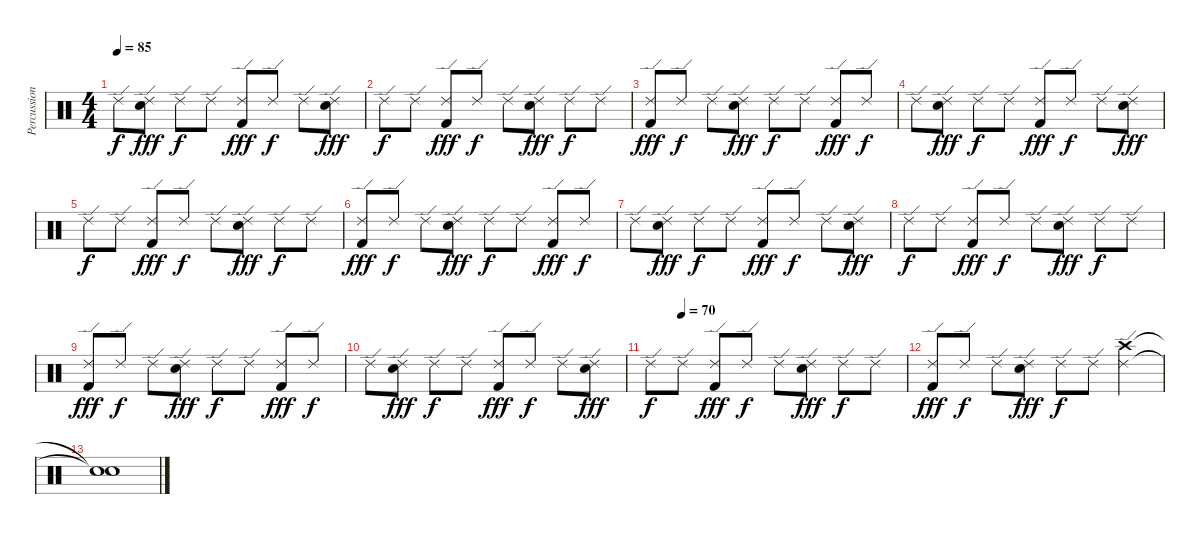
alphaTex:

\track ("Percussion" "Percussion") {instrument percussion}
\staff {score}
\articulation defaults
\ts (4 4)
\tempo 85
\clef neutral
\ks c "Ride (edge) 2".8{dy f}
("Ride (edge) 2" "Electric Snare (hit)").8{dy fff} "Ride (edge) 2".8{dy f} "Ride (edge) 2".8 ("Ride (edge) 2" "Kick (hit) 2").8{dy fff} "Ride (edge) 2".8{dy f} "Ride (edge) 2".8 ("Ride (edge) 2" "Electric Snare (hit)").8{dy fff} |
"Ride (edge) 2".8{dy f} "Ride (edge) 2".8 ("Ride (edge) 2" "Kick (hit) 2").8{dy fff} "Ride (edge) 2".8{dy f} "Ride (edge) 2".8 ("Ride (edge) 2" "Electric Snare (hit)").8{dy fff} "Ride (edge) 2".8{dy f} "Ride (edge) 2".8 |
("Ride (edge) 2" "Kick (hit) 2").8{dy fff} "Ride (edge) 2".8{dy f} "Ride (edge) 2".8 ("Ride (edge) 2" "Electric Snare (hit)").8{dy fff} "Ride (edge) 2".8{dy f} "Ride (edge) 2".8 ("Ride (edge) 2" "Kick (hit) 2").8{dy fff} "Ride (edge) 2".8{dy f} |
"Ride (edge) 2".8 ("Ride (edge) 2" "Electric Snare (hit)").8{dy fff} "Ride (edge) 2".8{dy f} "Ride (edge) 2".8 ("Ride (edge) 2" "Kick (hit) 2").8{dy fff} "Ride (edge) 2".8{dy f} "Ride (edge) 2".8 ("Ride (edge) 2" "Electric Snare (hit)").8{dy fff} |
"Ride (edge) 2".8{dy f} "Ride (edge) 2".8 ("Ride (edge) 2" "Kick (hit) 2").8{dy fff} "Ride (edge) 2".8{dy f} "Ride (edge) 2".8 ("Ride (edge) 2" "Electric Snare (hit)").8{dy fff} "Ride (edge) 2".8{dy f} "Ride (edge) 2".8 |
("Ride (edge) 2" "Kick (hit) 2").8{dy fff} "Ride (edge) 2".8{dy f} "Ride (edge) 2".8 ("Ride (edge) 2" "Electric Snare (hit)").8{dy fff} "Ride (edge) 2".8{dy f} "Ride (edge) 2".8 ("Ride (edge) 2" "Kick (hit) 2").8{dy fff} "Ride (edge) 2".8{dy f} |
"Ride (edge) 2".8 ("Ride (edge) 2" "Electric Snare (hit)").8{dy fff} "Ride (edge) 2".8{dy f} "Ride (edge) 2".8 ("Ride (edge) 2" "Kick (hit) 2").8{dy fff} "Ride (edge) 2".8{dy f} "Ride (edge) 2".8 ("Ride (edge) 2" "Electric Snare (hit)").8{dy fff} |
"Ride (edge) 2".8{dy f} "Ride (edge) 2".8 ("Ride (edge) 2" "Kick (hit) 2").8{dy fff} "Ride (edge) 2".8{dy f} "Ride (edge) 2".8 ("Ride (edge) 2" "Electric Snare (hit)").8{dy fff} "Ride (edge) 2".8{dy f} "Ride (edge) 2".8 |
("Ride (edge) 2" "Kick (hit) 2").8{dy fff} "Ride (edge) 2".8{dy f} "Ride (edge) 2".8 ("Ride (edge) 2" "Electric Snare (hit)").8{dy fff} "Ride (edge) 2".8{dy f} "Ride (edge) 2".8 ("Ride (edge) 2" "Kick (hit) 2").8{dy fff} "Ride (edge) 2".8{dy f} |
"Ride (edge) 2".8 ("Ride (edge) 2" "Electric Snare (hit)").8{dy fff} "Ride (edge) 2".8{dy f} "Ride (edge) 2".8 ("Ride (edge) 2" "Kick (hit) 2").8{dy fff} "Ride (edge) 2".8{dy f} "Ride (edge) 2".8 ("Ride (edge) 2" "Electric Snare (hit)").8{dy fff} |
\tempo (70 0.125)
"Ride (edge) 2".8{dy f} "Ride (edge) 2".8 ("Ride (edge) 2" "Kick (hit) 2").8{dy fff} "Ride (edge) 2".8{dy f} "Ride (edge) 2".8 ("Ride (edge) 2" "Electric Snare (hit)").8{dy fff} "Ride (edge) 2".8{dy f} "Ride (edge) 2".8 |
("Ride (edge) 2" "Kick (hit) 2").8{dy fff} "Ride (edge) 2".8{dy f} "Ride (edge) 2".8 ("Ride (edge) 2" "Electric Snare (hit)").8{dy fff} "Ride (edge) 2".8{dy f} "Ride (edge) 2".8 ("Ride (edge) 2" "Crash high (hit)").4 |
("Snare (hit)"{t} "Snare (hit)"{t}).1
